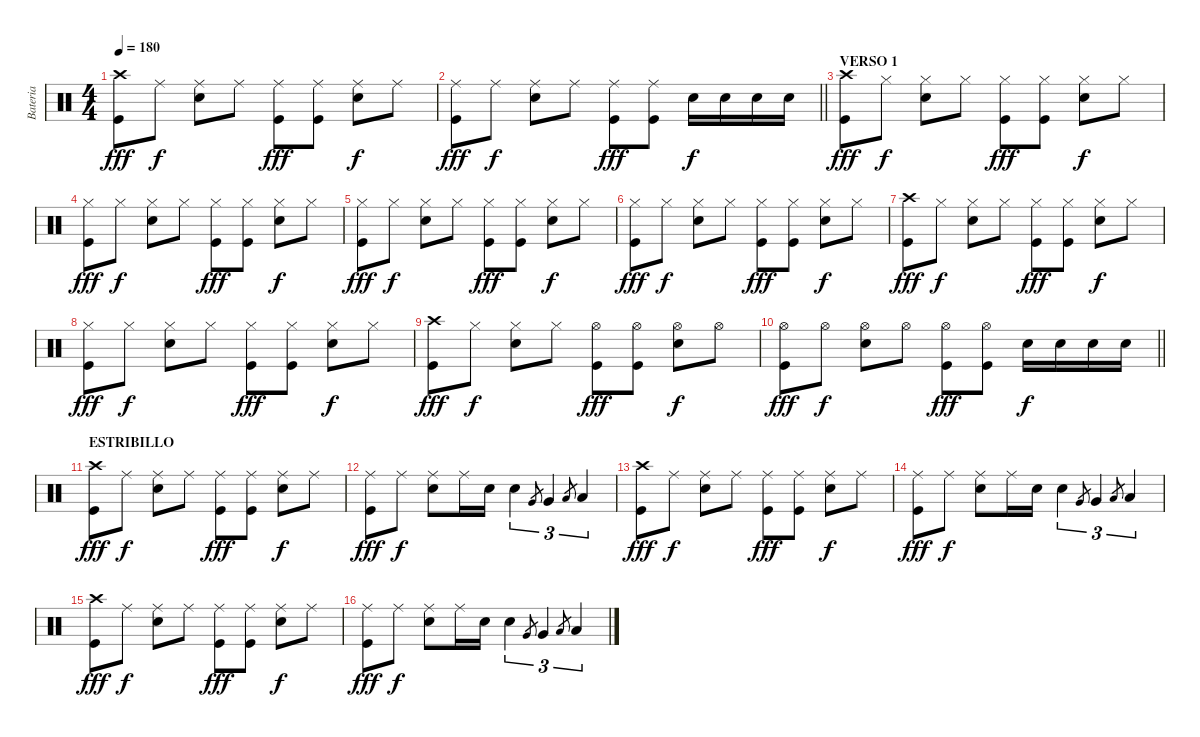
\track ("Bateria" "Bateria") {instrument percussion}
\staff {score}
\articulation defaults
\ts (4 4)
\tempo 180
\clef neutral
\ks c
("Crash high (hit)" "Kick (hit)").8{dy fff} "Ride (middle)".8{dy f} ("Ride (middle)" "Snare (hit) 2").8 "Ride (middle)".8 ("Ride (middle)" "Kick (hit)").8{dy fff} ("Ride (middle)" "Kick (hit)").8 ("Ride (middle)" "Snare (hit) 2").8{dy f} "Ride (middle)".8 |
\barLineRight lightlight
("Ride (middle)" "Kick (hit)").8{dy fff} "Ride (middle)".8{dy f} ("Ride (middle)" "Snare (hit) 2").8 "Ride (middle)".8 ("Ride (middle)" "Kick (hit)").8{dy fff} ("Ride (middle)" "Kick (hit)").8 "Snare (hit) 2".16{dy f} "Snare (hit) 2".16 "Snare (hit) 2".16 "Snare (hit) 2".16 |
\section ("" "VERSO 1")
("Crash high (hit)" "Kick (hit)").8{dy fff} "Hi-Hat (closed)".8{dy f} ("Hi-Hat (closed)" "Snare (hit) 2").8 "Hi-Hat (closed)".8 ("Hi-Hat (closed)" "Kick (hit)").8{dy fff} ("Hi-Hat (closed)" "Kick (hit)").8 ("Hi-Hat (closed)" "Snare (hit) 2").8{dy f} "Hi-Hat (closed)".8 |
("Hi-Hat (closed)" "Kick (hit)").8{dy fff} "Hi-Hat (closed)".8{dy f} ("Hi-Hat (closed)" "Snare (hit) 2").8 "Hi-Hat (closed)".8 ("Hi-Hat (closed)" "Kick (hit)").8{dy fff} ("Hi-Hat (closed)" "Kick (hit)").8 ("Hi-Hat (closed)" "Snare (hit) 2").8{dy f} "Hi-Hat (closed)".8 |
("Hi-Hat (closed)" "Kick (hit)").8{dy fff} "Hi-Hat (closed)".8{dy f} ("Hi-Hat (closed)" "Snare (hit) 2").8 "Hi-Hat (closed)".8 ("Hi-Hat (closed)" "Kick (hit)").8{dy fff} ("Hi-Hat (closed)" "Kick (hit)").8 ("Hi-Hat (closed)" "Snare (hit) 2").8{dy f} "Hi-Hat (closed)".8 |
("Hi-Hat (closed)" "Kick (hit)").8{dy fff} "Hi-Hat (closed)".8{dy f} ("Hi-Hat (closed)" "Snare (hit) 2").8 "Hi-Hat (closed)".8 ("Hi-Hat (closed)" "Kick (hit)").8{dy fff} ("Hi-Hat (closed)" "Kick (hit)").8 ("Hi-Hat (closed)" "Snare (hit) 2").8{dy f} "Hi-Hat (closed)".8 |
("Crash high (hit)" "Kick (hit)").8{dy fff} "Hi-Hat (closed)".8{dy f} ("Hi-Hat (closed)" "Snare (hit) 2").8 "Hi-Hat (closed)".8 ("Hi-Hat (closed)" "Kick (hit)").8{dy fff} ("Hi-Hat (closed)" "Kick (hit)").8 ("Hi-Hat (closed)" "Snare (hit) 2").8{dy f} "Hi-Hat (closed)".8 |
("Hi-Hat (closed)" "Kick (hit)").8{dy fff} "Hi-Hat (closed)".8{dy f} ("Hi-Hat (closed)" "Snare (hit) 2").8 "Hi-Hat (closed)".8 ("Hi-Hat (closed)" "Kick (hit)").8{dy fff} ("Hi-Hat (closed)" "Kick (hit)").8 ("Hi-Hat (closed)" "Snare (hit) 2").8{dy f} "Hi-Hat (closed)".8 |
("Crash high (hit)" "Kick (hit)").8{dy fff} "Hi-Hat (closed)".8{dy f} ("Hi-Hat (closed)" "Snare (hit) 2").8 "Hi-Hat (closed)".8 ("Hi-Hat (open)" "Kick (hit)").8{dy fff} ("Hi-Hat (open)" "Kick (hit)").8 ("Hi-Hat (open)" "Snare (hit) 2").8{dy f} "Hi-Hat (open)".8 |
\barLineRight lightlight
("Hi-Hat (open)" "Kick (hit)").8{dy fff} "Hi-Hat (open)".8{dy f} ("Hi-Hat (open)" "Snare (hit) 2").8 "Hi-Hat (open)".8 ("Hi-Hat (open)" "Kick (hit)").8{dy fff} ("Hi-Hat (open)" "Kick (hit)").8 "Snare (hit) 2".16{dy f} "Snare (hit) 2".16 "Snare (hit) 2".16 "Snare (hit) 2".16 |
\section ("" "ESTRIBILLO")
("Crash high (hit)" "Kick (hit)").8{dy fff} "Ride (middle)".8{dy f} ("Ride (middle)" "Snare (hit) 2").8 "Ride (middle)".8 ("Ride (middle)" "Kick (hit)").8{dy fff} ("Ride (middle)" "Kick (hit)").8 ("Ride (middle)" "Snare (hit) 2").8{dy f} "Ride (middle)".8 |
("Ride (middle)" "Kick (hit)").8{dy fff} "Ride (middle)".8{dy f} ("Ride (middle)" "Snare (hit) 2").8 "Ride (middle)".16 "Snare (hit) 2".16 "Snare (hit) 2".4{tu (3 2)} "Very Low Tom (hit)".8{gr} "Very Low Tom (hit)".4{tu (3 2)} "Low Tom (hit)".8{gr} "Low Tom (hit)".4{tu (3 2)} |
("Crash high (hit)" "Kick (hit)").8{dy fff} "Ride (middle)".8{dy f} ("Ride (middle)" "Snare (hit) 2").8 "Ride (middle)".8 ("Ride (middle)" "Kick (hit)").8{dy fff} ("Ride (middle)" "Kick (hit)").8 ("Ride (middle)" "Snare (hit) 2").8{dy f} "Ride (middle)".8 |
("Ride (middle)" "Kick (hit)").8{dy fff} "Ride (middle)".8{dy f} ("Ride (middle)" "Snare (hit) 2").8 "Ride (middle)".16 "Snare (hit) 2".16 "Snare (hit) 2".4{tu (3 2)} "Very Low Tom (hit)".8{gr} "Very Low Tom (hit)".4{tu (3 2)} "Low Tom (hit)".8{gr} "Low Tom (hit)".4{tu (3 2)} |
("Crash high (hit)" "Kick (hit)").8{dy fff} "Ride (middle)".8{dy f} ("Ride (middle)" "Snare (hit) 2").8 "Ride (middle)".8 ("Ride (middle)" "Kick (hit)").8{dy fff} ("Ride (middle)" "Kick (hit)").8 ("Ride (middle)" "Snare (hit) 2").8{dy f} "Ride (middle)".8 |
("Ride (middle)" "Kick (hit)").8{dy fff} "Ride (middle)".8{dy f} ("Ride (middle)" "Snare (hit) 2").8 "Ride (middle)".16 "Snare (hit) 2".16 "Snare (hit) 2".4{tu (3 2)} "Very Low Tom (hit)".8{gr} "Very Low Tom (hit)".4{tu (3 2)} "Low Tom (hit)".8{gr} "Low Tom (hit)".4{tu (3 2)}
